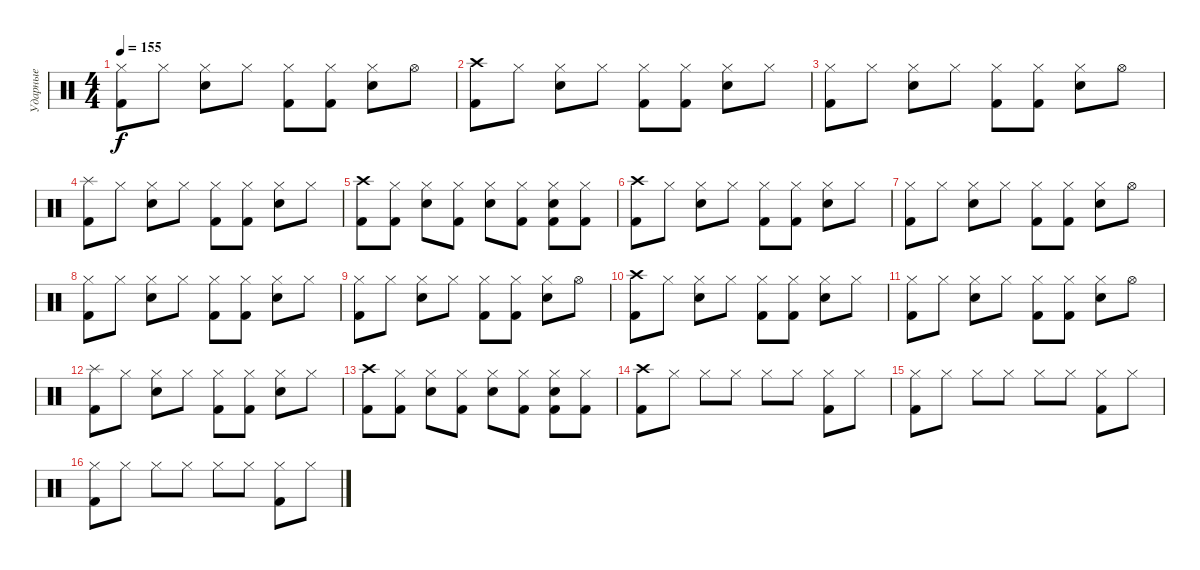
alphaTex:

\track ("Ударные" "Ударные") {instrument percussion}
\staff {score}
\articulation defaults
\ts (4 4)
\tempo 155
\clef neutral
\ks c
("Hi-Hat (closed)" "Kick (hit) 2").8{dy f} "Hi-Hat (closed)".8 ("Hi-Hat (closed)" "Electric Snare (hit)").8 "Hi-Hat (closed)".8 ("Hi-Hat (closed)" "Kick (hit) 2").8 ("Hi-Hat (closed)" "Kick (hit) 2").8 ("Hi-Hat (closed)" "Electric Snare (hit)").8 "Hi-Hat (open)".8 |
("Crash high (hit)" "Kick (hit) 2").8 "Hi-Hat (closed)".8 ("Hi-Hat (closed)" "Electric Snare (hit)").8 "Hi-Hat (closed)".8 ("Hi-Hat (closed)" "Kick (hit) 2").8 ("Hi-Hat (closed)" "Kick (hit) 2").8 ("Hi-Hat (closed)" "Electric Snare (hit)").8 "Hi-Hat (closed)".8 |
("Hi-Hat (closed)" "Kick (hit) 2").8 "Hi-Hat (closed)".8 ("Hi-Hat (closed)" "Electric Snare (hit)").8 "Hi-Hat (closed)".8 ("Hi-Hat (closed)" "Kick (hit) 2").8 ("Hi-Hat (closed)" "Kick (hit) 2").8 ("Hi-Hat (closed)" "Electric Snare (hit)").8 "Hi-Hat (open)".8 |
("Splash (hit)" "Kick (hit) 2").8 "Hi-Hat (closed)".8 ("Hi-Hat (closed)" "Electric Snare (hit)").8 "Hi-Hat (closed)".8 ("Hi-Hat (closed)" "Kick (hit) 2").8 ("Hi-Hat (closed)" "Kick (hit) 2").8 ("Hi-Hat (closed)" "Electric Snare (hit)").8 "Hi-Hat (closed)".8 |
("Crash high (hit)" "Kick (hit) 2").8 ("Hi-Hat (closed)" "Kick (hit) 2").8 ("Hi-Hat (closed)" "Electric Snare (hit)").8 ("Hi-Hat (closed)" "Kick (hit) 2").8 ("Hi-Hat (closed)" "Electric Snare (hit)").8 ("Hi-Hat (closed)" "Kick (hit) 2").8 ("Hi-Hat (closed)" "Electric Snare (hit)" "Kick (hit) 2").8 ("Hi-Hat (closed)" "Kick (hit) 2").8 |
("Crash high (hit)" "Kick (hit) 2").8 "Hi-Hat (closed)".8 ("Hi-Hat (closed)" "Electric Snare (hit)").8 "Hi-Hat (closed)".8 ("Hi-Hat (closed)" "Kick (hit) 2").8 ("Hi-Hat (closed)" "Kick (hit) 2").8 ("Hi-Hat (closed)" "Electric Snare (hit)").8 "Hi-Hat (closed)".8 |
("Hi-Hat (closed)" "Kick (hit) 2").8 "Hi-Hat (closed)".8 ("Hi-Hat (closed)" "Electric Snare (hit)").8 "Hi-Hat (closed)".8 ("Hi-Hat (closed)" "Kick (hit) 2").8 ("Hi-Hat (closed)" "Kick (hit) 2").8 ("Hi-Hat (closed)" "Electric Snare (hit)").8 "Hi-Hat (open)".8 |
("Hi-Hat (closed)" "Kick (hit) 2").8 "Hi-Hat (closed)".8 ("Hi-Hat (closed)" "Electric Snare (hit)").8 "Hi-Hat (closed)".8 ("Hi-Hat (closed)" "Kick (hit) 2").8 ("Hi-Hat (closed)" "Kick (hit) 2").8 ("Hi-Hat (closed)" "Electric Snare (hit)").8 "Hi-Hat (closed)".8 |
("Hi-Hat (closed)" "Kick (hit) 2").8 "Hi-Hat (closed)".8 ("Hi-Hat (closed)" "Electric Snare (hit)").8 "Hi-Hat (closed)".8 ("Hi-Hat (closed)" "Kick (hit) 2").8 ("Hi-Hat (closed)" "Kick (hit) 2").8 ("Hi-Hat (closed)" "Electric Snare (hit)").8 "Hi-Hat (open)".8 |
("Crash high (hit)" "Kick (hit) 2").8 "Hi-Hat (closed)".8 ("Hi-Hat (closed)" "Electric Snare (hit)").8 "Hi-Hat (closed)".8 ("Hi-Hat (closed)" "Kick (hit) 2").8 ("Hi-Hat (closed)" "Kick (hit) 2").8 ("Hi-Hat (closed)" "Electric Snare (hit)").8 "Hi-Hat (closed)".8 |
("Hi-Hat (closed)" "Kick (hit) 2").8 "Hi-Hat (closed)".8 ("Hi-Hat (closed)" "Electric Snare (hit)").8 "Hi-Hat (closed)".8 ("Hi-Hat (closed)" "Kick (hit) 2").8 ("Hi-Hat (closed)" "Kick (hit) 2").8 ("Hi-Hat (closed)" "Electric Snare (hit)").8 "Hi-Hat (open)".8 |
("Splash (hit)" "Kick (hit) 2").8 "Hi-Hat (closed)".8 ("Hi-Hat (closed)" "Electric Snare (hit)").8 "Hi-Hat (closed)".8 ("Hi-Hat (closed)" "Kick (hit) 2").8 ("Hi-Hat (closed)" "Kick (hit) 2").8 ("Hi-Hat (closed)" "Electric Snare (hit)").8 "Hi-Hat (closed)".8 |
("Crash high (hit)" "Kick (hit) 2").8 ("Hi-Hat (closed)" "Kick (hit) 2").8 ("Hi-Hat (closed)" "Electric Snare (hit)").8 ("Hi-Hat (closed)" "Kick (hit) 2").8 ("Hi-Hat (closed)" "Electric Snare (hit)").8 ("Hi-Hat (closed)" "Kick (hit) 2").8 ("Hi-Hat (closed)" "Electric Snare (hit)" "Kick (hit) 2").8 ("Hi-Hat (closed)" "Kick (hit) 2").8 |
("Crash high (hit)" "Kick (hit) 2").8 "Hi-Hat (closed)".8 "Hi-Hat (closed)".8 "Hi-Hat (closed)".8 "Hi-Hat (closed)".8 "Hi-Hat (closed)".8 ("Hi-Hat (closed)" "Kick (hit) 2").8 "Hi-Hat (closed)".8 |
("Hi-Hat (closed)" "Kick (hit) 2").8 "Hi-Hat (closed)".8 "Hi-Hat (closed)".8 "Hi-Hat (closed)".8 "Hi-Hat (closed)".8 "Hi-Hat (closed)".8 ("Hi-Hat (closed)" "Kick (hit) 2").8 "Hi-Hat (closed)".8 |
("Hi-Hat (closed)" "Kick (hit) 2").8 "Hi-Hat (closed)".8 "Hi-Hat (closed)".8 "Hi-Hat (closed)".8 "Hi-Hat (closed)".8 "Hi-Hat (closed)".8 ("Hi-Hat (closed)" "Kick (hit) 2").8 "Hi-Hat (closed)".8
